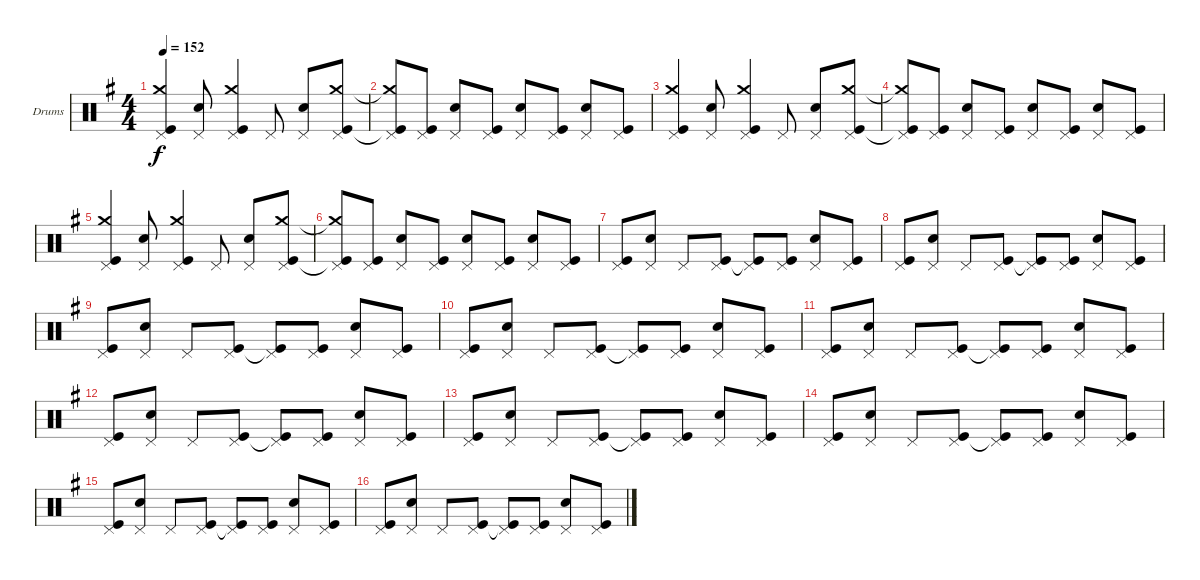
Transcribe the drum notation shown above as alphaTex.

\defaultSystemsLayout 4
\bracketExtendMode groupsimilarinstruments
\firstSystemTrackNameOrientation horizontal
\otherSystemsTrackNameOrientation horizontal
\track ("Drumkit" "Drums") {instrument percussion}
\staff {score}
\articulation defaults
\ts (4 4)
\tempo 152
\clef neutral
\scale
0.957125
\ks g
("Kick (hit)" "Crash medium (hit)" "Pedal Hi-Hat (hit)").4{dy f} ("Snare (hit) 2" "Pedal Hi-Hat (hit)").8 ("Kick (hit)" "Crash medium (hit)" "Pedal Hi-Hat (hit)").4 "Pedal Hi-Hat (hit)".8 ("Snare (hit) 2" "Pedal Hi-Hat (hit)").8 ("Kick (hit)" "Crash medium (hit)" "Pedal Hi-Hat (hit)").8 |
\scale
0.957125 ("Kick (hit)"{t} "Crash medium (hit)"{t} "Pedal Hi-Hat (hit)").8 ("Kick (hit)" "Pedal Hi-Hat (hit)").8 ("Snare (hit) 2" "Pedal Hi-Hat (hit)").8 ("Kick (hit)" "Pedal Hi-Hat (hit)").8 ("Snare (hit) 2" "Pedal Hi-Hat (hit)").8 ("Kick (hit)" "Pedal Hi-Hat (hit)").8 ("Snare (hit) 2" "Pedal Hi-Hat (hit)").8 ("Kick (hit)" "Pedal Hi-Hat (hit)").8 |
\scale
1.08575 ("Kick (hit)" "Crash medium (hit)" "Pedal Hi-Hat (hit)").4 ("Snare (hit) 2" "Pedal Hi-Hat (hit)").8 ("Kick (hit)" "Crash medium (hit)" "Pedal Hi-Hat (hit)").4 "Pedal Hi-Hat (hit)".8 ("Snare (hit) 2" "Pedal Hi-Hat (hit)").8 ("Kick (hit)" "Crash medium (hit)" "Pedal Hi-Hat (hit)").8 |
\scale
0.957125 ("Kick (hit)"{t} "Crash medium (hit)"{t} "Pedal Hi-Hat (hit)").8 ("Kick (hit)" "Pedal Hi-Hat (hit)").8 ("Snare (hit) 2" "Pedal Hi-Hat (hit)").8 ("Kick (hit)" "Pedal Hi-Hat (hit)").8 ("Snare (hit) 2" "Pedal Hi-Hat (hit)").8 ("Kick (hit)" "Pedal Hi-Hat (hit)").8 ("Snare (hit) 2" "Pedal Hi-Hat (hit)").8 ("Kick (hit)" "Pedal Hi-Hat (hit)").8 |
\scale
0.957125 ("Kick (hit)" "Crash medium (hit)" "Pedal Hi-Hat (hit)").4 ("Snare (hit) 2" "Pedal Hi-Hat (hit)").8 ("Kick (hit)" "Crash medium (hit)" "Pedal Hi-Hat (hit)").4 "Pedal Hi-Hat (hit)".8 ("Snare (hit) 2" "Pedal Hi-Hat (hit)").8 ("Kick (hit)" "Crash medium (hit)" "Pedal Hi-Hat (hit)").8 |
\scale
1.08575 ("Kick (hit)"{t} "Crash medium (hit)"{t} "Pedal Hi-Hat (hit)").8 ("Kick (hit)" "Pedal Hi-Hat (hit)").8 ("Snare (hit) 2" "Pedal Hi-Hat (hit)").8 ("Kick (hit)" "Pedal Hi-Hat (hit)").8 ("Snare (hit) 2" "Pedal Hi-Hat (hit)").8 ("Kick (hit)" "Pedal Hi-Hat (hit)").8 ("Snare (hit) 2" "Pedal Hi-Hat (hit)").8 ("Kick (hit)" "Pedal Hi-Hat (hit)").8 |
\scale
0.957125 ("Kick (hit)" "Pedal Hi-Hat (hit)").8 ("Snare (hit) 2" "Pedal Hi-Hat (hit)").8 "Pedal Hi-Hat (hit)".8 ("Kick (hit)" "Pedal Hi-Hat (hit)").8 ("Kick (hit)"{t} "Pedal Hi-Hat (hit)").8 ("Kick (hit)" "Pedal Hi-Hat (hit)").8 ("Snare (hit) 2" "Pedal Hi-Hat (hit)").8 ("Kick (hit)" "Pedal Hi-Hat (hit)").8 |
\scale
0.957125 ("Kick (hit)" "Pedal Hi-Hat (hit)").8 ("Snare (hit) 2" "Pedal Hi-Hat (hit)").8 "Pedal Hi-Hat (hit)".8 ("Kick (hit)" "Pedal Hi-Hat (hit)").8 ("Kick (hit)"{t} "Pedal Hi-Hat (hit)").8 ("Kick (hit)" "Pedal Hi-Hat (hit)").8 ("Snare (hit) 2" "Pedal Hi-Hat (hit)").8 ("Kick (hit)" "Pedal Hi-Hat (hit)").8 |
\scale
1.08575 ("Kick (hit)" "Pedal Hi-Hat (hit)").8 ("Snare (hit) 2" "Pedal Hi-Hat (hit)").8 "Pedal Hi-Hat (hit)".8 ("Kick (hit)" "Pedal Hi-Hat (hit)").8 ("Kick (hit)"{t} "Pedal Hi-Hat (hit)").8 ("Kick (hit)" "Pedal Hi-Hat (hit)").8 ("Snare (hit) 2" "Pedal Hi-Hat (hit)").8 ("Kick (hit)" "Pedal Hi-Hat (hit)").8 |
\scale
0.957125 ("Kick (hit)" "Pedal Hi-Hat (hit)").8 ("Snare (hit) 2" "Pedal Hi-Hat (hit)").8 "Pedal Hi-Hat (hit)".8 ("Kick (hit)" "Pedal Hi-Hat (hit)").8 ("Kick (hit)"{t} "Pedal Hi-Hat (hit)").8 ("Kick (hit)" "Pedal Hi-Hat (hit)").8 ("Snare (hit) 2" "Pedal Hi-Hat (hit)").8 ("Kick (hit)" "Pedal Hi-Hat (hit)").8 |
\scale
0.957125 ("Kick (hit)" "Pedal Hi-Hat (hit)").8 ("Snare (hit) 2" "Pedal Hi-Hat (hit)").8 "Pedal Hi-Hat (hit)".8 ("Kick (hit)" "Pedal Hi-Hat (hit)").8 ("Kick (hit)"{t} "Pedal Hi-Hat (hit)").8 ("Kick (hit)" "Pedal Hi-Hat (hit)").8 ("Snare (hit) 2" "Pedal Hi-Hat (hit)").8 ("Kick (hit)" "Pedal Hi-Hat (hit)").8 |
\scale
1.08575 ("Kick (hit)" "Pedal Hi-Hat (hit)").8 ("Snare (hit) 2" "Pedal Hi-Hat (hit)").8 "Pedal Hi-Hat (hit)".8 ("Kick (hit)" "Pedal Hi-Hat (hit)").8 ("Kick (hit)"{t} "Pedal Hi-Hat (hit)").8 ("Kick (hit)" "Pedal Hi-Hat (hit)").8 ("Snare (hit) 2" "Pedal Hi-Hat (hit)").8 ("Kick (hit)" "Pedal Hi-Hat (hit)").8 |
\scale
0.957125 ("Kick (hit)" "Pedal Hi-Hat (hit)").8 ("Snare (hit) 2" "Pedal Hi-Hat (hit)").8 "Pedal Hi-Hat (hit)".8 ("Kick (hit)" "Pedal Hi-Hat (hit)").8 ("Kick (hit)"{t} "Pedal Hi-Hat (hit)").8 ("Kick (hit)" "Pedal Hi-Hat (hit)").8 ("Snare (hit) 2" "Pedal Hi-Hat (hit)").8 ("Kick (hit)" "Pedal Hi-Hat (hit)").8 |
\scale
0.957125 ("Kick (hit)" "Pedal Hi-Hat (hit)").8 ("Snare (hit) 2" "Pedal Hi-Hat (hit)").8 "Pedal Hi-Hat (hit)".8 ("Kick (hit)" "Pedal Hi-Hat (hit)").8 ("Kick (hit)"{t} "Pedal Hi-Hat (hit)").8 ("Kick (hit)" "Pedal Hi-Hat (hit)").8 ("Snare (hit) 2" "Pedal Hi-Hat (hit)").8 ("Kick (hit)" "Pedal Hi-Hat (hit)").8 |
\scale
1.08575 ("Kick (hit)" "Pedal Hi-Hat (hit)").8 ("Snare (hit) 2" "Pedal Hi-Hat (hit)").8 "Pedal Hi-Hat (hit)".8 ("Kick (hit)" "Pedal Hi-Hat (hit)").8 ("Kick (hit)"{t} "Pedal Hi-Hat (hit)").8 ("Kick (hit)" "Pedal Hi-Hat (hit)").8 ("Snare (hit) 2" "Pedal Hi-Hat (hit)").8 ("Kick (hit)" "Pedal Hi-Hat (hit)").8 |
\scale
0.957125 ("Kick (hit)" "Pedal Hi-Hat (hit)").8 ("Snare (hit) 2" "Pedal Hi-Hat (hit)").8 "Pedal Hi-Hat (hit)".8 ("Kick (hit)" "Pedal Hi-Hat (hit)").8 ("Kick (hit)"{t} "Pedal Hi-Hat (hit)").8 ("Kick (hit)" "Pedal Hi-Hat (hit)").8 ("Snare (hit) 2" "Pedal Hi-Hat (hit)").8 ("Kick (hit)" "Pedal Hi-Hat (hit)").8
